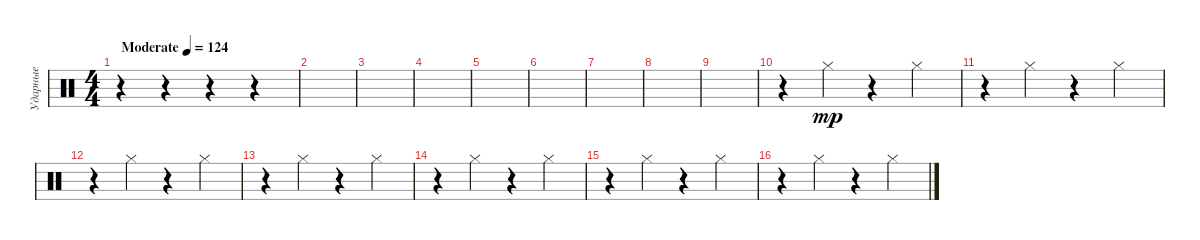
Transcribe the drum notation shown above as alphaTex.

\track ("Ударные" "Ударные") {instrument percussion}
\staff {score}
\articulation defaults
\ts (4 4)
\tempo (124 "Moderate")
\clef neutral
\ks c
r.4{dy mp} r.4 r.4 r.4 |
|
|
|
|
|
|
|
|
r.4 "Hi-Hat (closed)".4 r.4 "Hi-Hat (closed)".4 |
r.4 "Hi-Hat (closed)".4 r.4 "Hi-Hat (closed)".4 |
r.4 "Hi-Hat (closed)".4 r.4 "Hi-Hat (closed)".4 |
r.4 "Hi-Hat (closed)".4 r.4 "Hi-Hat (closed)".4 |
r.4 "Hi-Hat (closed)".4 r.4 "Hi-Hat (closed)".4 |
r.4 "Hi-Hat (closed)".4 r.4 "Hi-Hat (closed)".4 |
r.4 "Hi-Hat (closed)".4 r.4 "Hi-Hat (closed)".4
